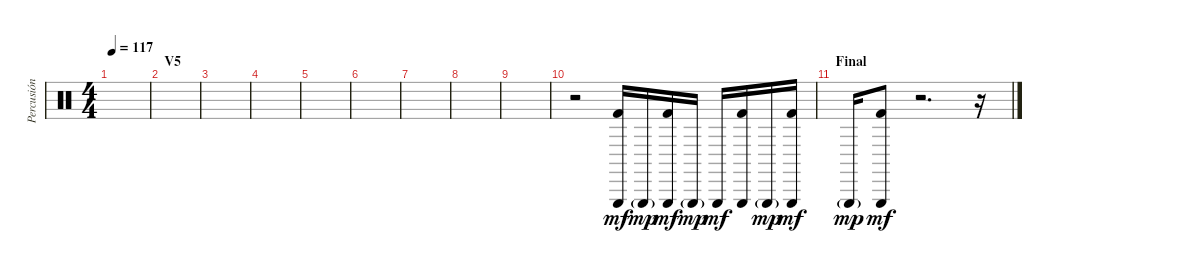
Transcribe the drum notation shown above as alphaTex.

\track ("Percusión" "Percusión") {instrument percussion}
\staff {score}
\articulation defaults
\ts (4 4)
\tempo 117
\clef neutral
\ks c
|
\section ("" "V5")
|
|
|
|
|
|
|
|
r.2 ("Triangle (hit)" "Kick (hit) 2").16{dy mf} "Triangle (hit)"{g}.16{dy mp} ("Triangle (hit)" "Kick (hit) 2").16{dy mf} "Triangle (hit)"{g}.16{dy mp} "Triangle (hit)".16{dy mf} ("Triangle (hit)" "Kick (hit) 2").16 "Triangle (hit)"{g}.16{dy mp} ("Triangle (hit)" "Kick (hit) 2").16{dy mf} |
\section ("" "Final")
"Triangle (hit)"{g}.16{dy mp} ("Triangle (hit)" "Kick (hit) 2").8{dy mf} r.2{d} r.16
